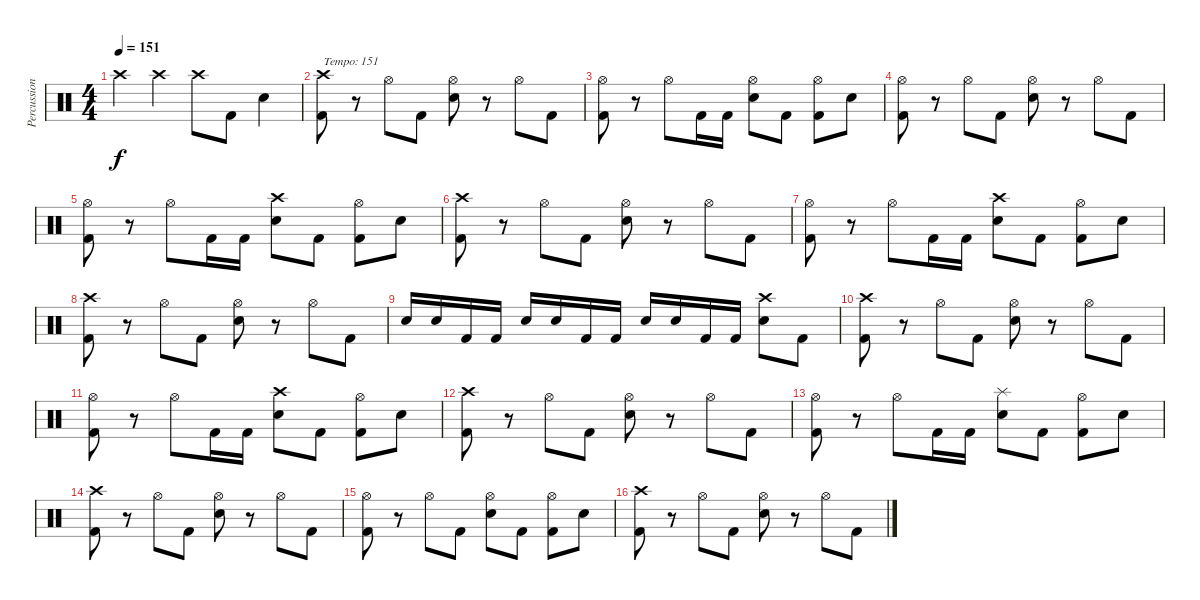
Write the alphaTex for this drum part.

\track ("Percussion" "Percussion") {instrument percussion}
\staff {score}
\articulation defaults
\ts (4 4)
\tempo 151
\clef neutral
\ks c "Crash high (hit)".4{dy f} "Crash high (hit)".4 "Crash high (hit)".8 "Kick (hit) 2".8 "Electric Snare (hit)".4
|
("Crash high (hit)" "Kick (hit) 2").8{txt "Tempo: 151"} r.8 "Hi-Hat (open)".8 "Kick (hit) 2".8 ("Hi-Hat (open)" "Electric Snare (hit)").8 r.8 "Hi-Hat (open)".8 "Kick (hit) 2".8 |
("Hi-Hat (open)" "Kick (hit) 2").8 r.8 "Hi-Hat (open)".8 "Kick (hit) 2".16 "Kick (hit) 2".16 ("Hi-Hat (open)" "Electric Snare (hit)").8 "Kick (hit) 2".8 ("Hi-Hat (open)" "Kick (hit) 2").8 "Electric Snare (hit)".8 |
("Hi-Hat (open)" "Kick (hit) 2").8 r.8 "Hi-Hat (open)".8 "Kick (hit) 2".8 ("Hi-Hat (open)" "Electric Snare (hit)").8 r.8 "Hi-Hat (open)".8 "Kick (hit) 2".8 |
("Hi-Hat (open)" "Kick (hit) 2").8 r.8 "Hi-Hat (open)".8 "Kick (hit) 2".16 "Kick (hit) 2".16 ("Crash high (hit)" "Electric Snare (hit)").8 "Kick (hit) 2".8 ("Hi-Hat (open)" "Kick (hit) 2").8 "Electric Snare (hit)".8 |
("Crash high (hit)" "Kick (hit) 2").8 r.8 "Hi-Hat (open)".8 "Kick (hit) 2".8 ("Hi-Hat (open)" "Electric Snare (hit)").8 r.8 "Hi-Hat (open)".8 "Kick (hit) 2".8 |
("Hi-Hat (open)" "Kick (hit) 2").8 r.8 "Hi-Hat (open)".8 "Kick (hit) 2".16 "Kick (hit) 2".16 ("Crash high (hit)" "Electric Snare (hit)").8 "Kick (hit) 2".8 ("Hi-Hat (open)" "Kick (hit) 2").8 "Electric Snare (hit)".8 |
("Crash high (hit)" "Kick (hit) 2").8 r.8 "Hi-Hat (open)".8 "Kick (hit) 2".8 ("Hi-Hat (open)" "Electric Snare (hit)").8 r.8 "Hi-Hat (open)".8 "Kick (hit) 2".8 |
"Electric Snare (hit)".16 "Electric Snare (hit)".16 "Kick (hit) 2".16 "Kick (hit) 2".16 "Electric Snare (hit)".16 "Electric Snare (hit)".16 "Kick (hit) 2".16 "Kick (hit) 2".16 "Electric Snare (hit)".16 "Electric Snare (hit)".16 "Kick (hit) 2".16 "Kick (hit) 2".16 ("Crash high (hit)" "Electric Snare (hit)").8 "Kick (hit) 2".8 |
("Crash high (hit)" "Kick (hit) 2").8 r.8 "Hi-Hat (open)".8 "Kick (hit) 2".8 ("Hi-Hat (open)" "Electric Snare (hit)").8 r.8 "Hi-Hat (open)".8 "Kick (hit) 2".8 |
("Hi-Hat (open)" "Kick (hit) 2").8 r.8 "Hi-Hat (open)".8 "Kick (hit) 2".16 "Kick (hit) 2".16 ("Crash high (hit)" "Electric Snare (hit)").8 "Kick (hit) 2".8 ("Hi-Hat (open)" "Kick (hit) 2").8 "Electric Snare (hit)".8 |
("Crash high (hit)" "Kick (hit) 2").8 r.8 "Hi-Hat (open)".8 "Kick (hit) 2".8 ("Hi-Hat (open)" "Electric Snare (hit)").8 r.8 "Hi-Hat (open)".8 "Kick (hit) 2".8 |
("Hi-Hat (open)" "Kick (hit) 2").8 r.8 "Hi-Hat (open)".8 "Kick (hit) 2".16 "Kick (hit) 2".16 ("Splash (hit)" "Electric Snare (hit)").8 "Kick (hit) 2".8 ("Hi-Hat (open)" "Kick (hit) 2").8 "Electric Snare (hit)".8 |
("Crash high (hit)" "Kick (hit) 2").8 r.8 "Hi-Hat (open)".8 "Kick (hit) 2".8 ("Hi-Hat (open)" "Electric Snare (hit)").8 r.8 "Hi-Hat (open)".8 "Kick (hit) 2".8 |
("Hi-Hat (open)" "Kick (hit) 2").8 r.8 "Hi-Hat (open)".8 "Kick (hit) 2".8 ("Hi-Hat (open)" "Electric Snare (hit)").8 "Kick (hit) 2".8 ("Hi-Hat (open)" "Kick (hit) 2").8 "Electric Snare (hit)".8 |
("Crash high (hit)" "Kick (hit) 2").8 r.8 "Hi-Hat (open)".8 "Kick (hit) 2".8 ("Hi-Hat (open)" "Electric Snare (hit)").8 r.8 "Hi-Hat (open)".8 "Kick (hit) 2".8
